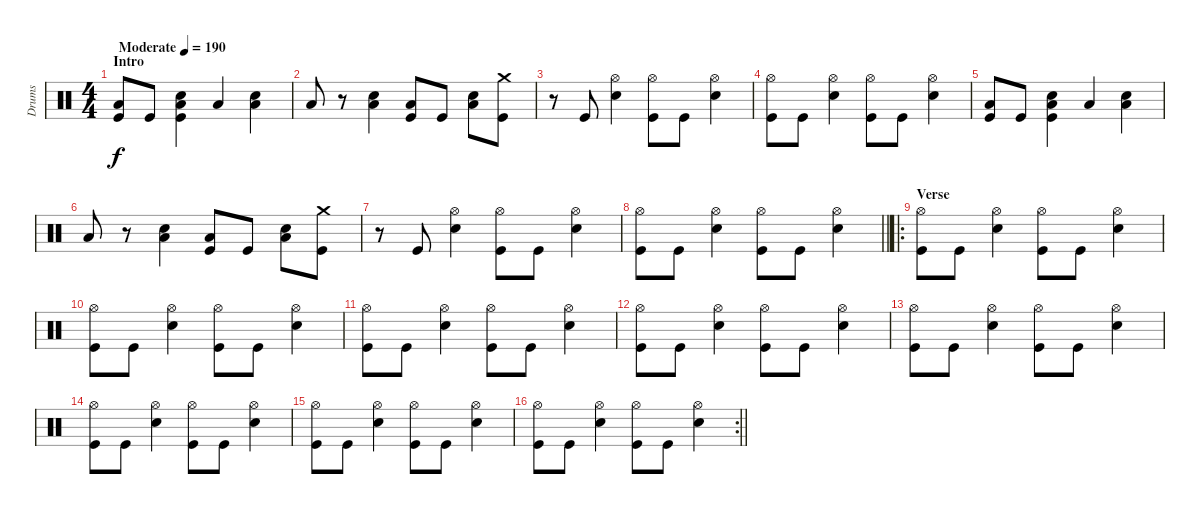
\track ("Drums" "Drums") {instrument percussion}
\staff {score}
\articulation defaults
\ts (4 4)
\section ("" "Intro")
\tempo (190 "Moderate")
\clef neutral
\ks c
("Low Floor Tom (hit)" "Kick (hit)").8{dy f} "Kick (hit)".8 ("Snare (hit) 2" "Low Floor Tom (hit)" "Kick (hit)").4 "Low Floor Tom (hit)".4 ("Snare (hit) 2" "Low Floor Tom (hit)").4 |
"Low Floor Tom (hit)".8 r.8 ("Snare (hit) 2" "Low Floor Tom (hit)").4 ("Low Floor Tom (hit)" "Kick (hit)").8 "Kick (hit)".8 ("Snare (hit) 2" "Low Floor Tom (hit)").8 ("Crash medium (hit)" "Kick (hit)").8 |
r.8 "Kick (hit)".8 ("Hi-Hat (open)" "Snare (hit) 2").4 ("Hi-Hat (open)" "Kick (hit)").8 "Kick (hit)".8 ("Hi-Hat (open)" "Snare (hit) 2").4 |
("Hi-Hat (open)" "Kick (hit)").8 "Kick (hit)".8 ("Hi-Hat (open)" "Snare (hit) 2").4 ("Hi-Hat (open)" "Kick (hit)").8 "Kick (hit)".8 ("Hi-Hat (open)" "Snare (hit) 2").4 |
("Low Floor Tom (hit)" "Kick (hit)").8 "Kick (hit)".8 ("Snare (hit) 2" "Low Floor Tom (hit)" "Kick (hit)").4 "Low Floor Tom (hit)".4 ("Snare (hit) 2" "Low Floor Tom (hit)").4 |
"Low Floor Tom (hit)".8 r.8 ("Snare (hit) 2" "Low Floor Tom (hit)").4 ("Low Floor Tom (hit)" "Kick (hit)").8 "Kick (hit)".8 ("Snare (hit) 2" "Low Floor Tom (hit)").8 ("Crash medium (hit)" "Kick (hit)").8 |
r.8 "Kick (hit)".8 ("Hi-Hat (open)" "Snare (hit) 2").4 ("Hi-Hat (open)" "Kick (hit)").8 "Kick (hit)".8 ("Hi-Hat (open)" "Snare (hit) 2").4 |
\barLineRight lightlight
("Hi-Hat (open)" "Kick (hit)").8 "Kick (hit)".8 ("Hi-Hat (open)" "Snare (hit) 2").4 ("Hi-Hat (open)" "Kick (hit)").8 "Kick (hit)".8 ("Hi-Hat (open)" "Snare (hit) 2").4 |
\ro
\section ("" "Verse")
("Hi-Hat (open)" "Kick (hit)").8 "Kick (hit)".8 ("Hi-Hat (open)" "Snare (hit) 2").4 ("Hi-Hat (open)" "Kick (hit)").8 "Kick (hit)".8 ("Hi-Hat (open)" "Snare (hit) 2").4 |
("Hi-Hat (open)" "Kick (hit)").8 "Kick (hit)".8 ("Hi-Hat (open)" "Snare (hit) 2").4 ("Hi-Hat (open)" "Kick (hit)").8 "Kick (hit)".8 ("Hi-Hat (open)" "Snare (hit) 2").4 |
("Hi-Hat (open)" "Kick (hit)").8 "Kick (hit)".8 ("Hi-Hat (open)" "Snare (hit) 2").4 ("Hi-Hat (open)" "Kick (hit)").8 "Kick (hit)".8 ("Hi-Hat (open)" "Snare (hit) 2").4 |
("Hi-Hat (open)" "Kick (hit)").8 "Kick (hit)".8 ("Hi-Hat (open)" "Snare (hit) 2").4 ("Hi-Hat (open)" "Kick (hit)").8 "Kick (hit)".8 ("Hi-Hat (open)" "Snare (hit) 2").4 |
("Hi-Hat (open)" "Kick (hit)").8 "Kick (hit)".8 ("Hi-Hat (open)" "Snare (hit) 2").4 ("Hi-Hat (open)" "Kick (hit)").8 "Kick (hit)".8 ("Hi-Hat (open)" "Snare (hit) 2").4 |
("Hi-Hat (open)" "Kick (hit)").8 "Kick (hit)".8 ("Hi-Hat (open)" "Snare (hit) 2").4 ("Hi-Hat (open)" "Kick (hit)").8 "Kick (hit)".8 ("Hi-Hat (open)" "Snare (hit) 2").4 |
("Hi-Hat (open)" "Kick (hit)").8 "Kick (hit)".8 ("Hi-Hat (open)" "Snare (hit) 2").4 ("Hi-Hat (open)" "Kick (hit)").8 "Kick (hit)".8 ("Hi-Hat (open)" "Snare (hit) 2").4 |
\rc 2
\barLineRight lightlight
("Hi-Hat (open)" "Kick (hit)").8 "Kick (hit)".8 ("Hi-Hat (open)" "Snare (hit) 2").4 ("Hi-Hat (open)" "Kick (hit)").8 "Kick (hit)".8 ("Hi-Hat (open)" "Snare (hit) 2").4
